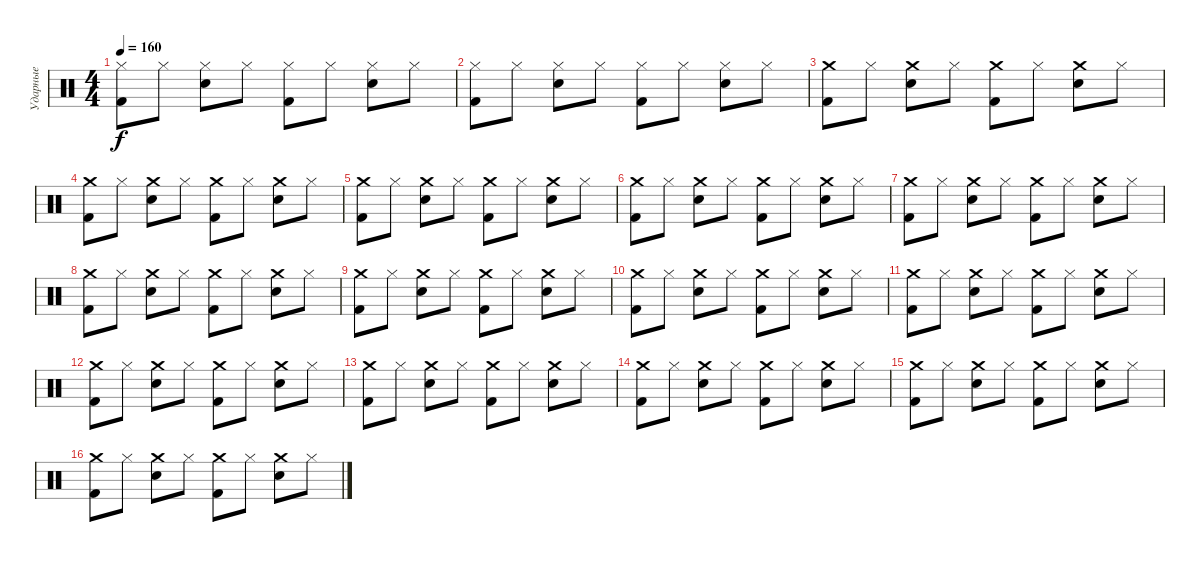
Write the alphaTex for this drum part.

\track ("Ударные" "Ударные") {instrument percussion}
\staff {score}
\articulation defaults
\ts (4 4)
\tempo 160
\clef neutral
\ks c
("Hi-Hat (closed)" "Kick (hit) 2").8{dy f} "Hi-Hat (closed)".8 ("Hi-Hat (closed)" "Snare (hit) 2").8 "Hi-Hat (closed)".8 ("Hi-Hat (closed)" "Kick (hit) 2").8 "Hi-Hat (closed)".8 ("Hi-Hat (closed)" "Snare (hit) 2").8 "Hi-Hat (closed)".8 |
("Hi-Hat (closed)" "Kick (hit) 2").8 "Hi-Hat (closed)".8 ("Hi-Hat (closed)" "Snare (hit) 2").8 "Hi-Hat (closed)".8 ("Hi-Hat (closed)" "Kick (hit) 2").8 "Hi-Hat (closed)".8 ("Hi-Hat (closed)" "Snare (hit) 2").8 "Hi-Hat (closed)".8 |
("Crash medium (hit)" "Kick (hit) 2").8 "Hi-Hat (closed)".8 ("Crash medium (hit)" "Snare (hit) 2").8 "Hi-Hat (closed)".8 ("Crash medium (hit)" "Kick (hit) 2").8 "Hi-Hat (closed)".8 ("Crash medium (hit)" "Snare (hit) 2").8 "Hi-Hat (closed)".8 |
("Crash medium (hit)" "Kick (hit) 2").8 "Hi-Hat (closed)".8 ("Crash medium (hit)" "Snare (hit) 2").8 "Hi-Hat (closed)".8 ("Crash medium (hit)" "Kick (hit) 2").8 "Hi-Hat (closed)".8 ("Crash medium (hit)" "Snare (hit) 2").8 "Hi-Hat (closed)".8 |
("Crash medium (hit)" "Kick (hit) 2").8 "Hi-Hat (closed)".8 ("Crash medium (hit)" "Snare (hit) 2").8 "Hi-Hat (closed)".8 ("Crash medium (hit)" "Kick (hit) 2").8 "Hi-Hat (closed)".8 ("Crash medium (hit)" "Snare (hit) 2").8 "Hi-Hat (closed)".8 |
("Crash medium (hit)" "Kick (hit) 2").8 "Hi-Hat (closed)".8 ("Crash medium (hit)" "Snare (hit) 2").8 "Hi-Hat (closed)".8 ("Crash medium (hit)" "Kick (hit) 2").8 "Hi-Hat (closed)".8 ("Crash medium (hit)" "Snare (hit) 2").8 "Hi-Hat (closed)".8 |
("Crash medium (hit)" "Kick (hit) 2").8 "Hi-Hat (closed)".8 ("Crash medium (hit)" "Snare (hit) 2").8 "Hi-Hat (closed)".8 ("Crash medium (hit)" "Kick (hit) 2").8 "Hi-Hat (closed)".8 ("Crash medium (hit)" "Snare (hit) 2").8 "Hi-Hat (closed)".8 |
("Crash medium (hit)" "Kick (hit) 2").8 "Hi-Hat (closed)".8 ("Crash medium (hit)" "Snare (hit) 2").8 "Hi-Hat (closed)".8 ("Crash medium (hit)" "Kick (hit) 2").8 "Hi-Hat (closed)".8 ("Crash medium (hit)" "Snare (hit) 2").8 "Hi-Hat (closed)".8 |
("Crash medium (hit)" "Kick (hit) 2").8 "Hi-Hat (closed)".8 ("Crash medium (hit)" "Snare (hit) 2").8 "Hi-Hat (closed)".8 ("Crash medium (hit)" "Kick (hit) 2").8 "Hi-Hat (closed)".8 ("Crash medium (hit)" "Snare (hit) 2").8 "Hi-Hat (closed)".8 |
("Crash medium (hit)" "Kick (hit) 2").8 "Hi-Hat (closed)".8 ("Crash medium (hit)" "Snare (hit) 2").8 "Hi-Hat (closed)".8 ("Crash medium (hit)" "Kick (hit) 2").8 "Hi-Hat (closed)".8 ("Crash medium (hit)" "Snare (hit) 2").8 "Hi-Hat (closed)".8 |
("Crash medium (hit)" "Kick (hit) 2").8 "Hi-Hat (closed)".8 ("Crash medium (hit)" "Snare (hit) 2").8 "Hi-Hat (closed)".8 ("Crash medium (hit)" "Kick (hit) 2").8 "Hi-Hat (closed)".8 ("Crash medium (hit)" "Snare (hit) 2").8 "Hi-Hat (closed)".8 |
("Crash medium (hit)" "Kick (hit) 2").8 "Hi-Hat (closed)".8 ("Crash medium (hit)" "Snare (hit) 2").8 "Hi-Hat (closed)".8 ("Crash medium (hit)" "Kick (hit) 2").8 "Hi-Hat (closed)".8 ("Crash medium (hit)" "Snare (hit) 2").8 "Hi-Hat (closed)".8 |
("Crash medium (hit)" "Kick (hit) 2").8 "Hi-Hat (closed)".8 ("Crash medium (hit)" "Snare (hit) 2").8 "Hi-Hat (closed)".8 ("Crash medium (hit)" "Kick (hit) 2").8 "Hi-Hat (closed)".8 ("Crash medium (hit)" "Snare (hit) 2").8 "Hi-Hat (closed)".8 |
("Crash medium (hit)" "Kick (hit) 2").8 "Hi-Hat (closed)".8 ("Crash medium (hit)" "Snare (hit) 2").8 "Hi-Hat (closed)".8 ("Crash medium (hit)" "Kick (hit) 2").8 "Hi-Hat (closed)".8 ("Crash medium (hit)" "Snare (hit) 2").8 "Hi-Hat (closed)".8 |
("Crash medium (hit)" "Kick (hit) 2").8 "Hi-Hat (closed)".8 ("Crash medium (hit)" "Snare (hit) 2").8 "Hi-Hat (closed)".8 ("Crash medium (hit)" "Kick (hit) 2").8 "Hi-Hat (closed)".8 ("Crash medium (hit)" "Snare (hit) 2").8 "Hi-Hat (closed)".8 |
("Crash medium (hit)" "Kick (hit) 2").8 "Hi-Hat (closed)".8 ("Crash medium (hit)" "Snare (hit) 2").8 "Hi-Hat (closed)".8 ("Crash medium (hit)" "Kick (hit) 2").8 "Hi-Hat (closed)".8 ("Crash medium (hit)" "Snare (hit) 2").8 "Hi-Hat (closed)".8
